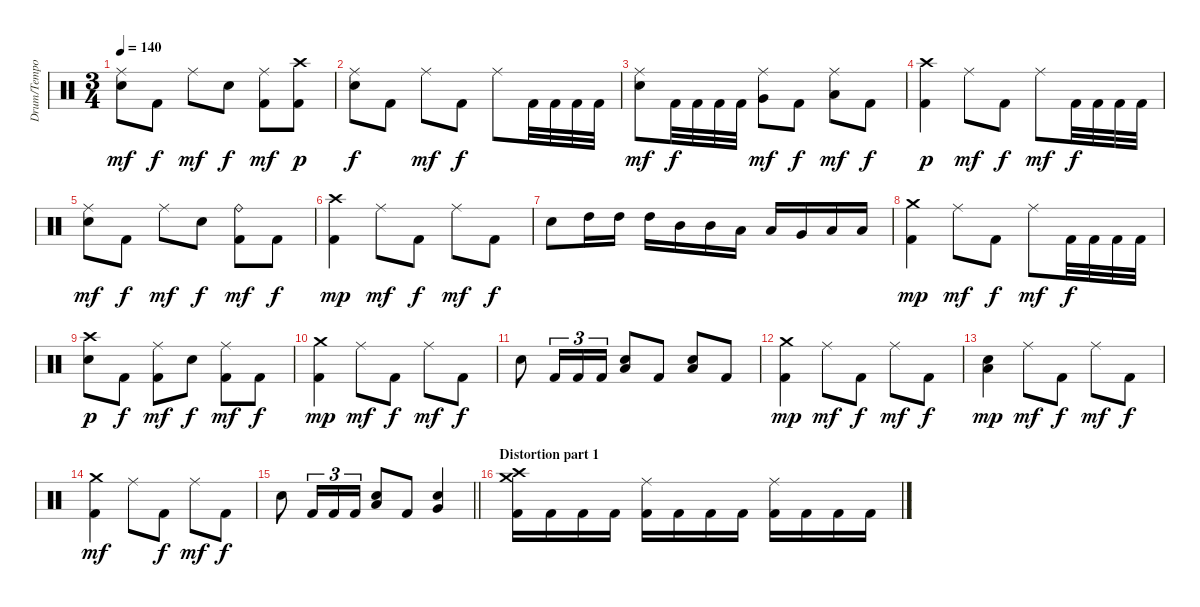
\track ("Drum/Tempo" "Drum/Tempo") {instrument percussion}
\staff {score}
\articulation defaults
\ts (3 4)
\tempo 140
\clef neutral
\ks c
("Electric Snare (hit)" "Ride (middle)").8{dy mf} "Kick (hit) 2".8{dy f} "Ride (middle)".8{dy mf} "Electric Snare (hit)".8{dy f} ("Kick (hit) 2" "Ride (middle)").8{dy mf} ("Kick (hit) 2" "Crash high (hit)").8{dy p} |
("Electric Snare (hit)" "Ride (middle)").8{dy f} "Kick (hit) 2".8 "Ride (middle)".8{dy mf} "Kick (hit) 2".8{dy f} "Ride (middle)".8 "Kick (hit) 2".32 "Kick (hit) 2".32 "Kick (hit) 2".32 "Kick (hit) 2".32 |
("Electric Snare (hit)" "Ride (middle)").8{dy mf} "Kick (hit) 2".32{dy f} "Kick (hit) 2".32 "Kick (hit) 2".32 "Kick (hit) 2".32 ("Ride (middle)" "Very Low Tom (hit)").8{dy mf} "Kick (hit) 2".8{dy f} ("Ride (middle)" "Low Floor Tom (hit)").8{dy mf} "Kick (hit) 2".8{dy f} |
("Kick (hit) 2" "Crash high (hit)").4{dy p} "Ride (middle)".8{dy mf} "Kick (hit) 2".8{dy f} "Ride (middle)".8{dy mf} "Kick (hit) 2".32{dy f} "Kick (hit) 2".32 "Kick (hit) 2".32 "Kick (hit) 2".32 |
("Electric Snare (hit)" "Ride (middle)").8{dy mf} "Kick (hit) 2".8{dy f} "Ride (middle)".8{dy mf} "Electric Snare (hit)".8{dy f} ("Kick (hit) 2" "Ride (bell)").8{dy mf} "Kick (hit) 2".8{dy f} |
("Kick (hit) 2" "Crash high (hit)").4{dy mp} "Ride (middle)".8{dy mf} "Kick (hit) 2".8{dy f} "Ride (middle)".8{dy mf} "Kick (hit) 2".8{dy f} |
"Electric Snare (hit)".8 "High Tom (hit)".16{balance 14} "High Tom (hit)".16 "High Tom (hit)".16 "Mid Tom (hit)".16{balance 11} "Mid Tom (hit)".16 "Low Tom (hit)".16{balance 8} "Low Tom (hit)".16 "Very Low Tom (hit)".16 "Low Floor Tom (hit)".16 "Low Floor Tom (hit)".16 |
("Kick (hit) 2" "Crash medium (hit)").4{dy mp} "Ride (middle)".8{dy mf} "Kick (hit) 2".8{dy f} "Ride (middle)".8{dy mf} "Kick (hit) 2".32{dy f} "Kick (hit) 2".32 "Kick (hit) 2".32 "Kick (hit) 2".32 |
("Electric Snare (hit)" "Crash high (hit)").8{dy p} "Kick (hit) 2".8{dy f} ("Kick (hit) 2" "Ride (middle)").8{dy mf} "Electric Snare (hit)".8{dy f} ("Kick (hit) 2" "Ride (middle)").8{dy mf} "Kick (hit) 2".8{dy f} |
("Kick (hit) 2" "Crash medium (hit)").4{dy mp} "Ride (middle)".8{dy mf} "Kick (hit) 2".8{dy f} "Ride (middle)".8{dy mf} "Kick (hit) 2".8{dy f} |
"Electric Snare (hit)".8 "Kick (hit) 2".16{tu (3 2)} "Kick (hit) 2".16{tu (3 2)} "Kick (hit) 2".16{tu (3 2)} ("Electric Snare (hit)" "Low Floor Tom (hit)").8 "Kick (hit) 2".8 ("Electric Snare (hit)" "Low Floor Tom (hit)").8 "Kick (hit) 2".8 |
("Kick (hit) 2" "Crash medium (hit)").4{dy mp} "Ride (middle)".8{dy mf} "Kick (hit) 2".8{dy f} "Ride (middle)".8{dy mf} "Kick (hit) 2".8{dy f} |
("Electric Snare (hit)" "Low Floor Tom (hit)").4{dy mp} "Ride (middle)".8{dy mf} "Kick (hit) 2".8{dy f} "Ride (middle)".8{dy mf} "Kick (hit) 2".8{dy f} |
("Kick (hit) 2" "Crash medium (hit)").4{dy mf} "Ride (middle)".8 "Kick (hit) 2".8{dy f} "Ride (middle)".8{dy mf} "Kick (hit) 2".8{dy f} |
\barLineRight lightlight "Electric Snare (hit)".8 "Kick (hit) 2".16{tu (3 2)} "Kick (hit) 2".16{tu (3 2)} "Kick (hit) 2".16{tu (3 2)}
("Electric Snare (hit)" "Low Tom (hit)").8 "Kick (hit) 2".8 ("Electric Snare (hit)" "Very Low Tom (hit)").4 |
\section ("" "Distortion part 1")
("Kick (hit) 2" "Crash medium (hit)" "Crash high (hit)").16 "Kick (hit) 2".16 "Kick (hit) 2".16 "Kick (hit) 2".16 ("Kick (hit) 2" "Ride (middle)").16 "Kick (hit) 2".16 "Kick (hit) 2".16 "Kick (hit) 2".16 ("Kick (hit) 2" "Ride (middle)").16 "Kick (hit) 2".16 "Kick (hit) 2".16 "Kick (hit) 2".16
